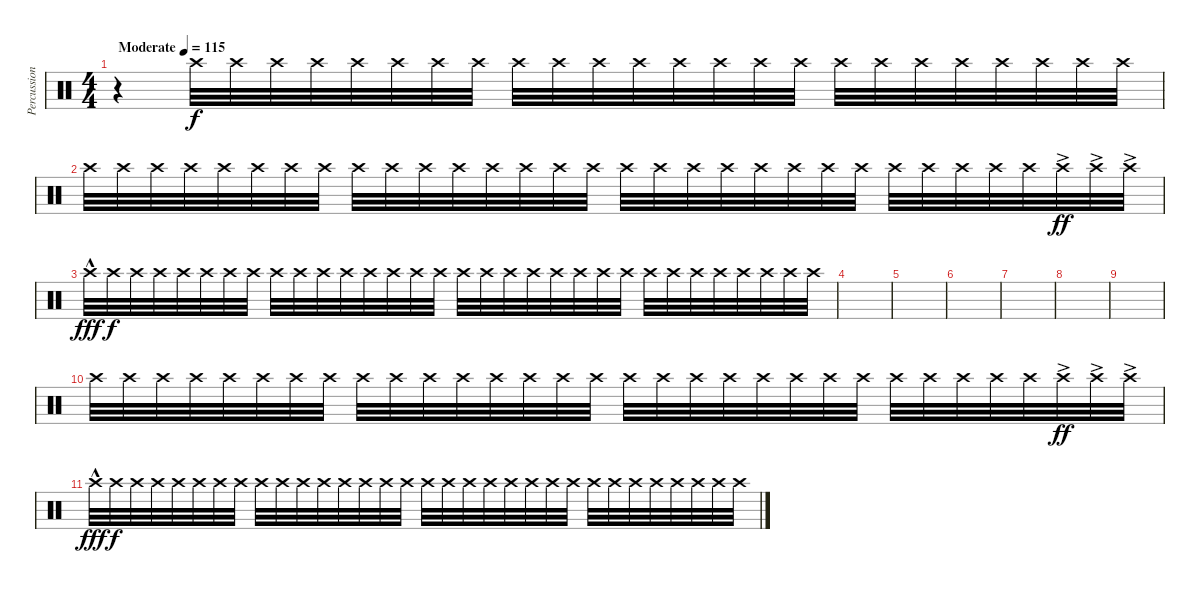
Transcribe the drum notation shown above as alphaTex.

\track ("Percussion" "Percussion") {instrument percussion}
\staff {score}
\articulation defaults
\ts (4 4)
\tempo (115 "Moderate")
\clef neutral
\ks c
r.4{dy f} "Crash high (hit)".32{volume 0} "Crash high (hit)".32 "Crash high (hit)".32 "Crash high (hit)".32 "Crash high (hit)".32 "Crash high (hit)".32 "Crash high (hit)".32 "Crash high (hit)".32 "Crash high (hit)".32{volume 10} "Crash high (hit)".32 "Crash high (hit)".32 "Crash high (hit)".32 "Crash high (hit)".32 "Crash high (hit)".32 "Crash high (hit)".32 "Crash high (hit)".32 "Crash high (hit)".32 "Crash high (hit)".32 "Crash high (hit)".32 "Crash high (hit)".32 "Crash high (hit)".32 "Crash high (hit)".32 "Crash high (hit)".32 "Crash high (hit)".32 |
"Crash high (hit)".32 "Crash high (hit)".32 "Crash high (hit)".32 "Crash high (hit)".32 "Crash high (hit)".32 "Crash high (hit)".32 "Crash high (hit)".32 "Crash high (hit)".32 "Crash high (hit)".32 "Crash high (hit)".32 "Crash high (hit)".32 "Crash high (hit)".32 "Crash high (hit)".32 "Crash high (hit)".32 "Crash high (hit)".32 "Crash high (hit)".32 "Crash high (hit)".32 "Crash high (hit)".32 "Crash high (hit)".32 "Crash high (hit)".32 "Crash high (hit)".32 "Crash high (hit)".32 "Crash high (hit)".32 "Crash high (hit)".32 "Crash high (hit)".32 "Crash high (hit)".32 "Crash high (hit)".32 "Crash high (hit)".32 "Crash high (hit)".32 "Crash high (hit)"{ac}.32{dy ff} "Crash high (hit)"{ac}.32 "Crash high (hit)"{ac}.32 |
"Crash high (hit)"{hac}.32{dy fff volume 3} "Crash high (hit)".32{dy f} "Crash high (hit)".32 "Crash high (hit)".32 "Crash high (hit)".32 "Crash high (hit)".32 "Crash high (hit)".32 "Crash high (hit)".32 "Crash high (hit)".32 "Crash high (hit)".32 "Crash high (hit)".32 "Crash high (hit)".32 "Crash high (hit)".32 "Crash high (hit)".32 "Crash high (hit)".32 "Crash high (hit)".32 "Crash high (hit)".32 "Crash high (hit)".32 "Crash high (hit)".32 "Crash high (hit)".32 "Crash high (hit)".32 "Crash high (hit)".32 "Crash high (hit)".32 "Crash high (hit)".32 "Crash high (hit)".32 "Crash high (hit)".32 "Crash high (hit)".32 "Crash high (hit)".32 "Crash high (hit)".32 "Crash high (hit)".32 "Crash high (hit)".32 "Crash high (hit)".32 |
|
|
|
|
|
|
"Crash high (hit)".32{volume 10} "Crash high (hit)".32 "Crash high (hit)".32 "Crash high (hit)".32 "Crash high (hit)".32 "Crash high (hit)".32 "Crash high (hit)".32 "Crash high (hit)".32 "Crash high (hit)".32 "Crash high (hit)".32 "Crash high (hit)".32 "Crash high (hit)".32 "Crash high (hit)".32 "Crash high (hit)".32 "Crash high (hit)".32 "Crash high (hit)".32 "Crash high (hit)".32 "Crash high (hit)".32 "Crash high (hit)".32 "Crash high (hit)".32 "Crash high (hit)".32 "Crash high (hit)".32 "Crash high (hit)".32 "Crash high (hit)".32 "Crash high (hit)".32 "Crash high (hit)".32 "Crash high (hit)".32 "Crash high (hit)".32 "Crash high (hit)".32 "Crash high (hit)"{ac}.32{dy ff} "Crash high (hit)"{ac}.32 "Crash high (hit)"{ac}.32 |
"Crash high (hit)"{hac}.32{dy fff volume 3} "Crash high (hit)".32{dy f} "Crash high (hit)".32 "Crash high (hit)".32 "Crash high (hit)".32 "Crash high (hit)".32 "Crash high (hit)".32 "Crash high (hit)".32 "Crash high (hit)".32 "Crash high (hit)".32 "Crash high (hit)".32 "Crash high (hit)".32 "Crash high (hit)".32 "Crash high (hit)".32 "Crash high (hit)".32 "Crash high (hit)".32 "Crash high (hit)".32 "Crash high (hit)".32 "Crash high (hit)".32 "Crash high (hit)".32 "Crash high (hit)".32 "Crash high (hit)".32 "Crash high (hit)".32 "Crash high (hit)".32 "Crash high (hit)".32 "Crash high (hit)".32 "Crash high (hit)".32 "Crash high (hit)".32 "Crash high (hit)".32 "Crash high (hit)".32 "Crash high (hit)".32 "Crash high (hit)".32
